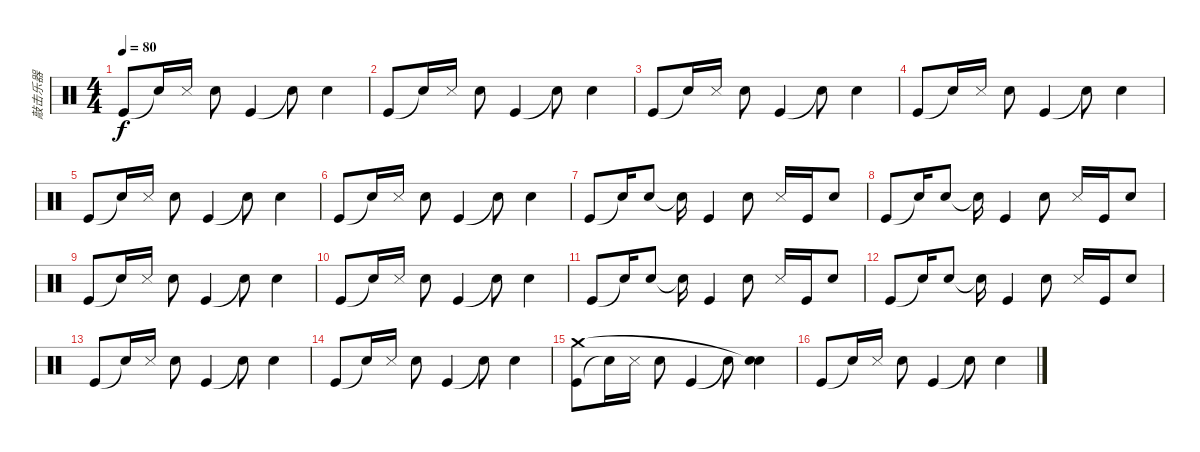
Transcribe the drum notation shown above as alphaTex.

\track ("敲击乐器" "敲击乐器") {instrument percussion}
\staff {score}
\articulation defaults
\ts (4 4)
\tempo 80
\clef neutral
\ks c "Kick (hit)".8{dy f} "Snare (hit)"{t}.16 "Metronome (hit)".16 "Metronome (bell)".8 "Kick (hit)".4 "Snare (hit)"{t}.8 "Metronome (bell)".4
|
"Kick (hit)".8 "Snare (hit)"{t}.16 "Metronome (hit)".16 "Metronome (bell)".8 "Kick (hit)".4 "Snare (hit)"{t}.8 "Metronome (bell)".4 |
"Kick (hit)".8 "Snare (hit)"{t}.16 "Metronome (hit)".16 "Metronome (bell)".8 "Kick (hit)".4 "Snare (hit)"{t}.8 "Metronome (bell)".4 |
"Kick (hit)".8 "Snare (hit)"{t}.16 "Metronome (hit)".16 "Metronome (bell)".8 "Kick (hit)".4 "Snare (hit)"{t}.8 "Metronome (bell)".4 |
"Kick (hit)".8 "Snare (hit)"{t}.16 "Metronome (hit)".16 "Metronome (bell)".8 "Kick (hit)".4 "Snare (hit)"{t}.8 "Metronome (bell)".4 |
"Kick (hit)".8 "Snare (hit)"{t}.16 "Metronome (hit)".16 "Metronome (bell)".8 "Kick (hit)".4 "Snare (hit)"{t}.8 "Metronome (bell)".4 |
"Kick (hit)".8 "Metronome (bell)"{t}.16 "Metronome (bell)".8 "Snare (hit)"{t}.16 "Kick (hit)".4 "Metronome (bell)".8 "Metronome (hit)".16 "Kick (hit)".16 "Metronome (bell)".8 |
"Kick (hit)".8 "Metronome (bell)"{t}.16 "Metronome (bell)".8 "Snare (hit)"{t}.16 "Kick (hit)".4 "Metronome (bell)".8 "Metronome (hit)".16 "Kick (hit)".16 "Metronome (bell)".8 |
"Kick (hit)".8 "Snare (hit)"{t}.16 "Metronome (hit)".16 "Metronome (bell)".8 "Kick (hit)".4 "Snare (hit)"{t}.8 "Metronome (bell)".4 |
"Kick (hit)".8 "Snare (hit)"{t}.16 "Metronome (hit)".16 "Metronome (bell)".8 "Kick (hit)".4 "Snare (hit)"{t}.8 "Metronome (bell)".4 |
"Kick (hit)".8 "Metronome (bell)"{t}.16 "Metronome (bell)".8 "Snare (hit)"{t}.16 "Kick (hit)".4 "Metronome (bell)".8 "Metronome (hit)".16 "Kick (hit)".16 "Metronome (bell)".8 |
"Kick (hit)".8 "Metronome (bell)"{t}.16 "Metronome (bell)".8 "Snare (hit)"{t}.16 "Kick (hit)".4 "Metronome (bell)".8 "Metronome (hit)".16 "Kick (hit)".16 "Metronome (bell)".8 |
"Kick (hit)".8 "Snare (hit)"{t}.16 "Metronome (hit)".16 "Metronome (bell)".8 "Kick (hit)".4 "Snare (hit)"{t}.8 "Metronome (bell)".4 |
"Kick (hit)".8 "Snare (hit)"{t}.16 "Metronome (hit)".16 "Metronome (bell)".8 "Kick (hit)".4 "Snare (hit)"{t}.8 "Metronome (bell)".4 |
("Kick (hit)" "Crash medium (hit)").8 "Snare (hit)"{t}.16 "Metronome (hit)".16 "Metronome (bell)".8 "Kick (hit)".4 "Snare (hit)"{t}.8 ("Metronome (bell)" "Snare (hit)"{t}).4 |
"Kick (hit)".8 "Snare (hit)"{t}.16 "Metronome (hit)".16 "Metronome (bell)".8 "Kick (hit)".4 "Snare (hit)"{t}.8 "Metronome (bell)".4
